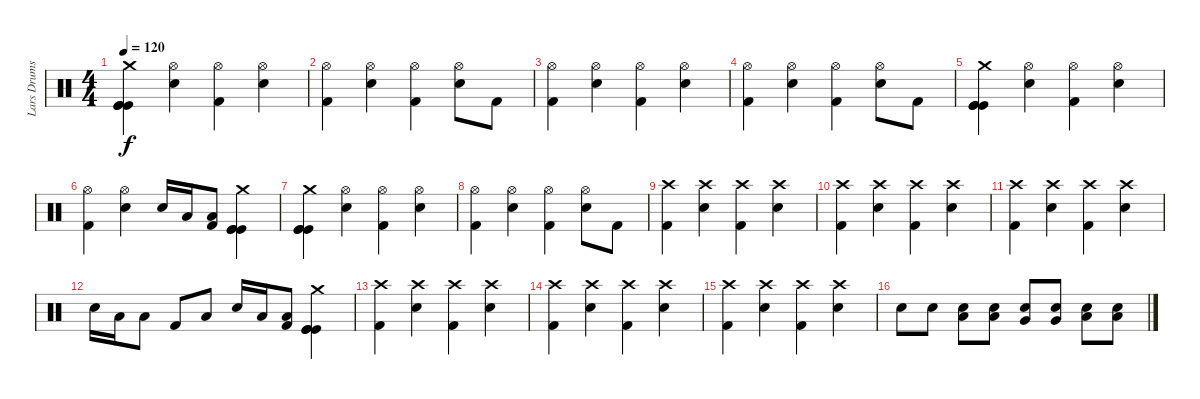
\track ("Lars Drums" "Lars Drums") {instrument percussion}
\staff {score}
\articulation defaults
\ts (4 4)
\tempo 120
\clef neutral
\ks c
("Kick (hit)" "Kick (hit)" "Kick (hit)" "Crash medium (hit)").4{dy f} ("Hi-Hat (open)" "Electric Snare (hit)").4 ("Hi-Hat (open)" "Kick (hit) 2").4 ("Hi-Hat (open)" "Electric Snare (hit)").4 |
("Hi-Hat (open)" "Kick (hit) 2").4 ("Hi-Hat (open)" "Electric Snare (hit)").4 ("Hi-Hat (open)" "Kick (hit) 2").4 ("Hi-Hat (open)" "Electric Snare (hit)").8 "Kick (hit) 2".8 |
("Hi-Hat (open)" "Kick (hit) 2").4 ("Hi-Hat (open)" "Electric Snare (hit)").4 ("Hi-Hat (open)" "Kick (hit) 2").4 ("Hi-Hat (open)" "Electric Snare (hit)").4 |
("Hi-Hat (open)" "Kick (hit) 2").4 ("Hi-Hat (open)" "Electric Snare (hit)").4 ("Hi-Hat (open)" "Kick (hit) 2").4 ("Hi-Hat (open)" "Electric Snare (hit)").8 "Kick (hit) 2".8 |
("Kick (hit)" "Kick (hit)" "Kick (hit)" "Crash medium (hit)").4 ("Hi-Hat (open)" "Electric Snare (hit)").4 ("Hi-Hat (open)" "Kick (hit) 2").4 ("Hi-Hat (open)" "Electric Snare (hit)").4 |
("Hi-Hat (open)" "Kick (hit) 2").4 ("Hi-Hat (open)" "Electric Snare (hit)").4 "Electric Snare (hit)".16 "Low Tom (hit)".16 ("Low Floor Tom (hit)" "Kick (hit) 2").8 ("Kick (hit)" "Kick (hit)" "Kick (hit)" "Crash medium (hit)").4 |
("Kick (hit)" "Kick (hit)" "Kick (hit)" "Crash medium (hit)").4 ("Hi-Hat (open)" "Electric Snare (hit)").4 ("Hi-Hat (open)" "Kick (hit) 2").4 ("Hi-Hat (open)" "Electric Snare (hit)").4 |
("Hi-Hat (open)" "Kick (hit) 2").4 ("Hi-Hat (open)" "Electric Snare (hit)").4 ("Hi-Hat (open)" "Kick (hit) 2").4 ("Hi-Hat (open)" "Electric Snare (hit)").8 "Kick (hit) 2".8 |
("Crash high (hit)" "Kick (hit) 2").4 ("Crash high (hit)" "Electric Snare (hit)").4 ("Crash high (hit)" "Kick (hit) 2").4 ("Crash high (hit)" "Electric Snare (hit)").4 |
("Crash high (hit)" "Kick (hit) 2").4 ("Crash high (hit)" "Electric Snare (hit)").4 ("Crash high (hit)" "Kick (hit) 2").4 ("Crash high (hit)" "Electric Snare (hit)").4 |
("Crash high (hit)" "Kick (hit) 2").4 ("Crash high (hit)" "Electric Snare (hit)").4 ("Crash high (hit)" "Kick (hit) 2").4 ("Crash high (hit)" "Electric Snare (hit)").4 |
"Electric Snare (hit)".16 "Low Tom (hit)".16 "Low Floor Tom (hit)".8 "Kick (hit) 2".8 "Low Floor Tom (hit)".8 "Electric Snare (hit)".16 "Low Tom (hit)".16 ("Low Floor Tom (hit)" "Kick (hit) 2").8 ("Kick (hit)" "Kick (hit)" "Kick (hit)" "Crash medium (hit)").4 |
("Crash high (hit)" "Kick (hit) 2").4 ("Crash high (hit)" "Electric Snare (hit)").4 ("Crash high (hit)" "Kick (hit) 2").4 ("Crash high (hit)" "Electric Snare (hit)").4 |
("Crash high (hit)" "Kick (hit) 2").4 ("Crash high (hit)" "Electric Snare (hit)").4 ("Crash high (hit)" "Kick (hit) 2").4 ("Crash high (hit)" "Electric Snare (hit)").4 |
("Crash high (hit)" "Kick (hit) 2").4 ("Crash high (hit)" "Electric Snare (hit)").4 ("Crash high (hit)" "Kick (hit) 2").4 ("Crash high (hit)" "Electric Snare (hit)").4 |
"Electric Snare (hit)".8 "Electric Snare (hit)".8 ("Electric Snare (hit)" "Low Tom (hit)").8 ("Electric Snare (hit)" "Low Tom (hit)").8 ("Electric Snare (hit)" "Very Low Tom (hit)").8 ("Electric Snare (hit)" "Very Low Tom (hit)").8 ("Electric Snare (hit)" "Low Floor Tom (hit)").8 ("Electric Snare (hit)" "Low Floor Tom (hit)").8
